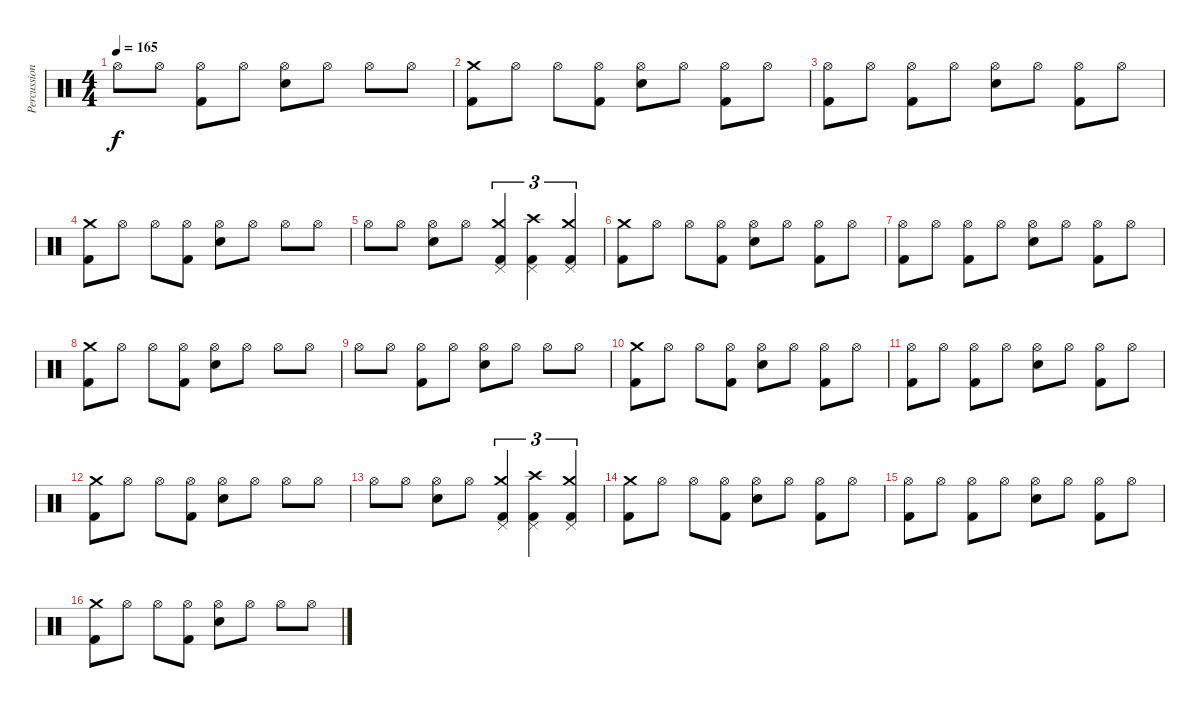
\track ("Percussion" "Percussion") {instrument percussion}
\staff {score}
\articulation defaults
\ts (4 4)
\tempo 165
\clef neutral
\ks c "Hi-Hat (open)".8{dy f} "Hi-Hat (open)".8
("Hi-Hat (open)" "Kick (hit) 2").8 "Hi-Hat (open)".8 ("Hi-Hat (open)" "Electric Snare (hit)").8 "Hi-Hat (open)".8 "Hi-Hat (open)".8 "Hi-Hat (open)".8 |
("Crash medium (hit)" "Kick (hit) 2").8 "Hi-Hat (open)".8 "Hi-Hat (open)".8 ("Hi-Hat (open)" "Kick (hit) 2").8 ("Hi-Hat (open)" "Electric Snare (hit)").8 "Hi-Hat (open)".8 ("Hi-Hat (open)" "Kick (hit) 2").8 "Hi-Hat (open)".8 |
("Hi-Hat (open)" "Kick (hit) 2").8 "Hi-Hat (open)".8 ("Hi-Hat (open)" "Kick (hit) 2").8 "Hi-Hat (open)".8 ("Hi-Hat (open)" "Electric Snare (hit)").8 "Hi-Hat (open)".8 ("Hi-Hat (open)" "Kick (hit) 2").8 "Hi-Hat (open)".8 |
("Crash medium (hit)" "Kick (hit) 2").8 "Hi-Hat (open)".8 "Hi-Hat (open)".8 ("Hi-Hat (open)" "Kick (hit) 2").8 ("Hi-Hat (open)" "Electric Snare (hit)").8 "Hi-Hat (open)".8 "Hi-Hat (open)".8 "Hi-Hat (open)".8 |
"Hi-Hat (open)".8 "Hi-Hat (open)".8 ("Hi-Hat (open)" "Electric Snare (hit)").8 "Hi-Hat (open)".8 ("Crash medium (hit)" "Pedal Hi-Hat (hit)" "Kick (hit) 2").4{tu (3 2)} ("Crash high (hit)" "Pedal Hi-Hat (hit)" "Kick (hit) 2").4{tu (3 2)} ("Crash medium (hit)" "Pedal Hi-Hat (hit)" "Kick (hit) 2").4{tu (3 2)} |
("Crash medium (hit)" "Kick (hit) 2").8 "Hi-Hat (open)".8 "Hi-Hat (open)".8 ("Hi-Hat (open)" "Kick (hit) 2").8 ("Hi-Hat (open)" "Electric Snare (hit)").8 "Hi-Hat (open)".8 ("Hi-Hat (open)" "Kick (hit) 2").8 "Hi-Hat (open)".8 |
("Hi-Hat (open)" "Kick (hit) 2").8 "Hi-Hat (open)".8 ("Hi-Hat (open)" "Kick (hit) 2").8 "Hi-Hat (open)".8 ("Hi-Hat (open)" "Electric Snare (hit)").8 "Hi-Hat (open)".8 ("Hi-Hat (open)" "Kick (hit) 2").8 "Hi-Hat (open)".8 |
("Crash medium (hit)" "Kick (hit) 2").8 "Hi-Hat (open)".8 "Hi-Hat (open)".8 ("Hi-Hat (open)" "Kick (hit) 2").8 ("Hi-Hat (open)" "Electric Snare (hit)").8 "Hi-Hat (open)".8 "Hi-Hat (open)".8 "Hi-Hat (open)".8 |
"Hi-Hat (open)".8 "Hi-Hat (open)".8 ("Hi-Hat (open)" "Kick (hit) 2").8 "Hi-Hat (open)".8 ("Hi-Hat (open)" "Electric Snare (hit)").8 "Hi-Hat (open)".8 "Hi-Hat (open)".8 "Hi-Hat (open)".8 |
("Crash medium (hit)" "Kick (hit) 2").8 "Hi-Hat (open)".8 "Hi-Hat (open)".8 ("Hi-Hat (open)" "Kick (hit) 2").8 ("Hi-Hat (open)" "Electric Snare (hit)").8 "Hi-Hat (open)".8 ("Hi-Hat (open)" "Kick (hit) 2").8 "Hi-Hat (open)".8 |
("Hi-Hat (open)" "Kick (hit) 2").8 "Hi-Hat (open)".8 ("Hi-Hat (open)" "Kick (hit) 2").8 "Hi-Hat (open)".8 ("Hi-Hat (open)" "Electric Snare (hit)").8 "Hi-Hat (open)".8 ("Hi-Hat (open)" "Kick (hit) 2").8 "Hi-Hat (open)".8 |
("Crash medium (hit)" "Kick (hit) 2").8 "Hi-Hat (open)".8 "Hi-Hat (open)".8 ("Hi-Hat (open)" "Kick (hit) 2").8 ("Hi-Hat (open)" "Electric Snare (hit)").8 "Hi-Hat (open)".8 "Hi-Hat (open)".8 "Hi-Hat (open)".8 |
"Hi-Hat (open)".8 "Hi-Hat (open)".8 ("Hi-Hat (open)" "Electric Snare (hit)").8 "Hi-Hat (open)".8 ("Crash medium (hit)" "Pedal Hi-Hat (hit)" "Kick (hit) 2").4{tu (3 2)} ("Crash high (hit)" "Pedal Hi-Hat (hit)" "Kick (hit) 2").4{tu (3 2)} ("Crash medium (hit)" "Pedal Hi-Hat (hit)" "Kick (hit) 2").4{tu (3 2)} |
("Crash medium (hit)" "Kick (hit) 2").8 "Hi-Hat (open)".8 "Hi-Hat (open)".8 ("Hi-Hat (open)" "Kick (hit) 2").8 ("Hi-Hat (open)" "Electric Snare (hit)").8 "Hi-Hat (open)".8 ("Hi-Hat (open)" "Kick (hit) 2").8 "Hi-Hat (open)".8 |
("Hi-Hat (open)" "Kick (hit) 2").8 "Hi-Hat (open)".8 ("Hi-Hat (open)" "Kick (hit) 2").8 "Hi-Hat (open)".8 ("Hi-Hat (open)" "Electric Snare (hit)").8 "Hi-Hat (open)".8 ("Hi-Hat (open)" "Kick (hit) 2").8 "Hi-Hat (open)".8 |
("Crash medium (hit)" "Kick (hit) 2").8 "Hi-Hat (open)".8 "Hi-Hat (open)".8 ("Hi-Hat (open)" "Kick (hit) 2").8 ("Hi-Hat (open)" "Electric Snare (hit)").8 "Hi-Hat (open)".8 "Hi-Hat (open)".8 "Hi-Hat (open)".8
